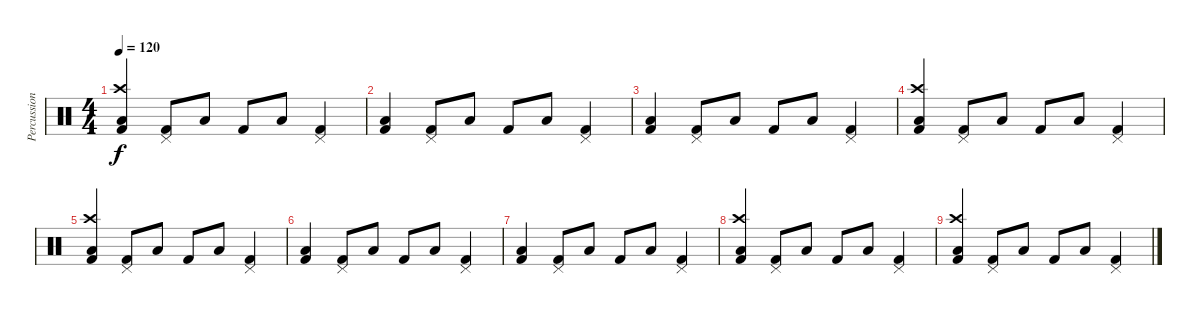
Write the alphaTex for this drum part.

\track ("Percussions" "Percussion") {instrument percussion}
\staff {score}
\articulation defaults
\ts (4 4)
\tempo 120
\clef neutral
\ks c
("Low Floor Tom (hit)" "Crash high (hit)" "Kick (hit) 2").4{dy f} ("Pedal Hi-Hat (hit)" "Kick (hit) 2").8 "Low Floor Tom (hit)".8 "Kick (hit) 2".8 "Low Floor Tom (hit)".8 ("Pedal Hi-Hat (hit)" "Kick (hit) 2").4 |
("Low Floor Tom (hit)" "Kick (hit) 2").4 ("Pedal Hi-Hat (hit)" "Kick (hit) 2").8 "Low Floor Tom (hit)".8 "Kick (hit) 2".8 "Low Floor Tom (hit)".8 ("Pedal Hi-Hat (hit)" "Kick (hit) 2").4 |
("Low Floor Tom (hit)" "Kick (hit) 2").4 ("Pedal Hi-Hat (hit)" "Kick (hit) 2").8 "Low Floor Tom (hit)".8 "Kick (hit) 2".8 "Low Floor Tom (hit)".8 ("Pedal Hi-Hat (hit)" "Kick (hit) 2").4 |
("Low Floor Tom (hit)" "Crash high (hit)" "Kick (hit) 2").4 ("Pedal Hi-Hat (hit)" "Kick (hit) 2").8 "Low Floor Tom (hit)".8 "Kick (hit) 2".8 "Low Floor Tom (hit)".8 ("Pedal Hi-Hat (hit)" "Kick (hit) 2").4 |
("Low Floor Tom (hit)" "Crash high (hit)" "Kick (hit) 2").4 ("Pedal Hi-Hat (hit)" "Kick (hit) 2").8 "Low Floor Tom (hit)".8 "Kick (hit) 2".8 "Low Floor Tom (hit)".8 ("Pedal Hi-Hat (hit)" "Kick (hit) 2").4 |
("Low Floor Tom (hit)" "Kick (hit) 2").4 ("Pedal Hi-Hat (hit)" "Kick (hit) 2").8 "Low Floor Tom (hit)".8 "Kick (hit) 2".8 "Low Floor Tom (hit)".8 ("Pedal Hi-Hat (hit)" "Kick (hit) 2").4 |
("Low Floor Tom (hit)" "Kick (hit) 2").4 ("Pedal Hi-Hat (hit)" "Kick (hit) 2").8 "Low Floor Tom (hit)".8 "Kick (hit) 2".8 "Low Floor Tom (hit)".8 ("Pedal Hi-Hat (hit)" "Kick (hit) 2").4 |
("Low Floor Tom (hit)" "Crash high (hit)" "Kick (hit) 2").4 ("Pedal Hi-Hat (hit)" "Kick (hit) 2").8 "Low Floor Tom (hit)".8 "Kick (hit) 2".8 "Low Floor Tom (hit)".8 ("Pedal Hi-Hat (hit)" "Kick (hit) 2").4 |
("Low Floor Tom (hit)" "Crash high (hit)" "Kick (hit) 2").4 ("Pedal Hi-Hat (hit)" "Kick (hit) 2").8 "Low Floor Tom (hit)".8 "Kick (hit) 2".8 "Low Floor Tom (hit)".8 ("Pedal Hi-Hat (hit)" "Kick (hit) 2").4
